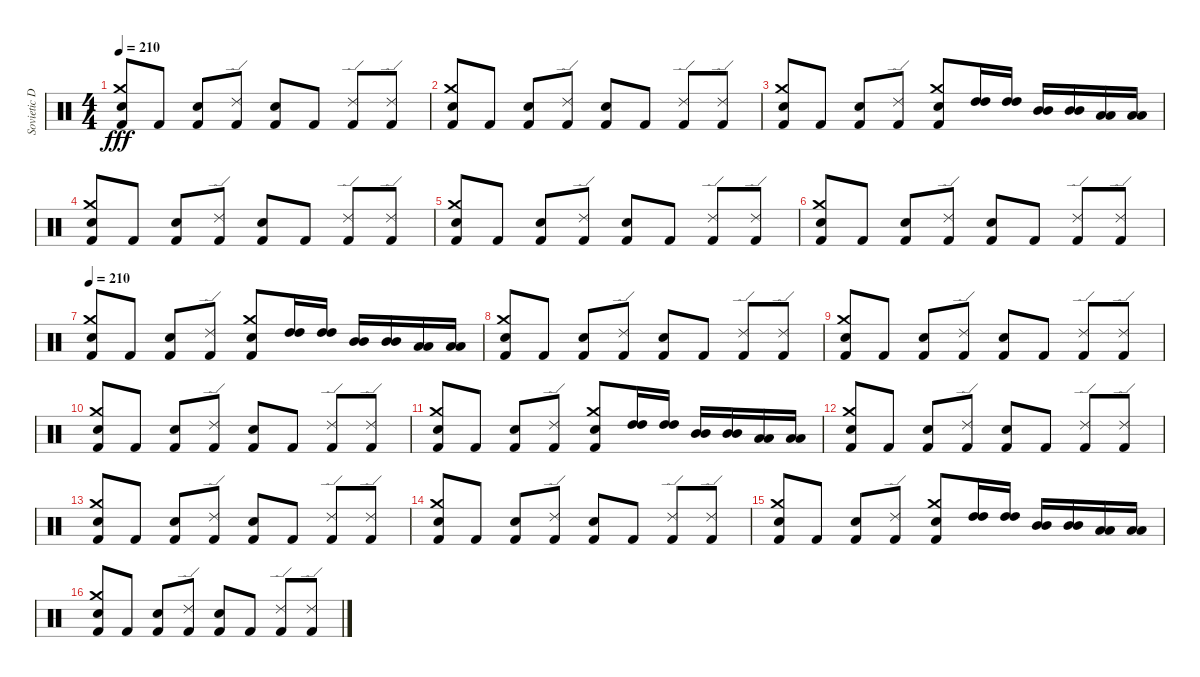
\track ("Sovietic Drummer" "Sovietic D") {instrument percussion}
\staff {score}
\articulation defaults
\ts (4 4)
\tempo 210
\clef neutral
\ks c
("Electric Snare (hit)" "Crash medium (hit)" "Kick (hit) 2").8{dy fff} "Kick (hit) 2".8 ("Electric Snare (hit)" "Kick (hit) 2").8 ("Ride (edge) 2" "Kick (hit) 2").8 ("Electric Snare (hit)" "Kick (hit) 2").8 "Kick (hit) 2".8 ("Ride (edge) 2" "Kick (hit) 2").8 ("Ride (edge) 2" "Kick (hit) 2").8 |
("Electric Snare (hit)" "Crash medium (hit)" "Kick (hit) 2").8 "Kick (hit) 2".8 ("Electric Snare (hit)" "Kick (hit) 2").8 ("Ride (edge) 2" "Kick (hit) 2").8 ("Electric Snare (hit)" "Kick (hit) 2").8 "Kick (hit) 2".8 ("Ride (edge) 2" "Kick (hit) 2").8 ("Ride (edge) 2" "Kick (hit) 2").8 |
("Electric Snare (hit)" "Crash medium (hit)" "Kick (hit) 2").8 "Kick (hit) 2".8 ("Electric Snare (hit)" "Kick (hit) 2").8 ("Ride (edge) 2" "Kick (hit) 2").8 ("Crash medium (hit)" "Electric Snare (hit)" "Kick (hit) 2").8 ("High Tom (hit)" "High Tom (hit)").16 ("High Tom (hit)" "High Tom (hit)").16 ("Mid Tom (hit)" "Mid Tom (hit)").16 ("Mid Tom (hit)" "Mid Tom (hit)").16 ("Low Tom (hit)" "Low Tom (hit)").16 ("Low Tom (hit)" "Low Tom (hit)").16 |
("Electric Snare (hit)" "Crash medium (hit)" "Kick (hit) 2").8 "Kick (hit) 2".8 ("Electric Snare (hit)" "Kick (hit) 2").8 ("Ride (edge) 2" "Kick (hit) 2").8 ("Electric Snare (hit)" "Kick (hit) 2").8 "Kick (hit) 2".8 ("Ride (edge) 2" "Kick (hit) 2").8 ("Ride (edge) 2" "Kick (hit) 2").8 |
("Electric Snare (hit)" "Crash medium (hit)" "Kick (hit) 2").8 "Kick (hit) 2".8 ("Electric Snare (hit)" "Kick (hit) 2").8 ("Ride (edge) 2" "Kick (hit) 2").8 ("Electric Snare (hit)" "Kick (hit) 2").8 "Kick (hit) 2".8 ("Ride (edge) 2" "Kick (hit) 2").8 ("Ride (edge) 2" "Kick (hit) 2").8 |
("Electric Snare (hit)" "Crash medium (hit)" "Kick (hit) 2").8 "Kick (hit) 2".8 ("Electric Snare (hit)" "Kick (hit) 2").8 ("Ride (edge) 2" "Kick (hit) 2").8 ("Electric Snare (hit)" "Kick (hit) 2").8 "Kick (hit) 2".8 ("Ride (edge) 2" "Kick (hit) 2").8 ("Ride (edge) 2" "Kick (hit) 2").8 |
\tempo 210
("Electric Snare (hit)" "Crash medium (hit)" "Kick (hit) 2").8 "Kick (hit) 2".8 ("Electric Snare (hit)" "Kick (hit) 2").8 ("Ride (edge) 2" "Kick (hit) 2").8 ("Crash medium (hit)" "Electric Snare (hit)" "Kick (hit) 2").8 ("High Tom (hit)" "High Tom (hit)").16 ("High Tom (hit)" "High Tom (hit)").16 ("Mid Tom (hit)" "Mid Tom (hit)").16 ("Mid Tom (hit)" "Mid Tom (hit)").16 ("Low Tom (hit)" "Low Tom (hit)").16 ("Low Tom (hit)" "Low Tom (hit)").16 |
("Electric Snare (hit)" "Crash medium (hit)" "Kick (hit) 2").8 "Kick (hit) 2".8 ("Electric Snare (hit)" "Kick (hit) 2").8 ("Ride (edge) 2" "Kick (hit) 2").8 ("Electric Snare (hit)" "Kick (hit) 2").8 "Kick (hit) 2".8 ("Ride (edge) 2" "Kick (hit) 2").8 ("Ride (edge) 2" "Kick (hit) 2").8 |
("Electric Snare (hit)" "Crash medium (hit)" "Kick (hit) 2").8 "Kick (hit) 2".8 ("Electric Snare (hit)" "Kick (hit) 2").8 ("Ride (edge) 2" "Kick (hit) 2").8 ("Electric Snare (hit)" "Kick (hit) 2").8 "Kick (hit) 2".8 ("Ride (edge) 2" "Kick (hit) 2").8 ("Ride (edge) 2" "Kick (hit) 2").8 |
("Electric Snare (hit)" "Crash medium (hit)" "Kick (hit) 2").8 "Kick (hit) 2".8 ("Electric Snare (hit)" "Kick (hit) 2").8 ("Ride (edge) 2" "Kick (hit) 2").8 ("Electric Snare (hit)" "Kick (hit) 2").8 "Kick (hit) 2".8 ("Ride (edge) 2" "Kick (hit) 2").8 ("Ride (edge) 2" "Kick (hit) 2").8 |
("Electric Snare (hit)" "Crash medium (hit)" "Kick (hit) 2").8 "Kick (hit) 2".8 ("Electric Snare (hit)" "Kick (hit) 2").8 ("Ride (edge) 2" "Kick (hit) 2").8 ("Crash medium (hit)" "Electric Snare (hit)" "Kick (hit) 2").8 ("High Tom (hit)" "High Tom (hit)").16 ("High Tom (hit)" "High Tom (hit)").16 ("Mid Tom (hit)" "Mid Tom (hit)").16 ("Mid Tom (hit)" "Mid Tom (hit)").16 ("Low Tom (hit)" "Low Tom (hit)").16 ("Low Tom (hit)" "Low Tom (hit)").16 |
("Electric Snare (hit)" "Crash medium (hit)" "Kick (hit) 2").8 "Kick (hit) 2".8 ("Electric Snare (hit)" "Kick (hit) 2").8 ("Ride (edge) 2" "Kick (hit) 2").8 ("Electric Snare (hit)" "Kick (hit) 2").8 "Kick (hit) 2".8 ("Ride (edge) 2" "Kick (hit) 2").8 ("Ride (edge) 2" "Kick (hit) 2").8 |
("Electric Snare (hit)" "Crash medium (hit)" "Kick (hit) 2").8 "Kick (hit) 2".8 ("Electric Snare (hit)" "Kick (hit) 2").8 ("Ride (edge) 2" "Kick (hit) 2").8 ("Electric Snare (hit)" "Kick (hit) 2").8 "Kick (hit) 2".8 ("Ride (edge) 2" "Kick (hit) 2").8 ("Ride (edge) 2" "Kick (hit) 2").8 |
("Electric Snare (hit)" "Crash medium (hit)" "Kick (hit) 2").8 "Kick (hit) 2".8 ("Electric Snare (hit)" "Kick (hit) 2").8 ("Ride (edge) 2" "Kick (hit) 2").8 ("Electric Snare (hit)" "Kick (hit) 2").8 "Kick (hit) 2".8 ("Ride (edge) 2" "Kick (hit) 2").8 ("Ride (edge) 2" "Kick (hit) 2").8 |
("Electric Snare (hit)" "Crash medium (hit)" "Kick (hit) 2").8 "Kick (hit) 2".8 ("Electric Snare (hit)" "Kick (hit) 2").8 ("Ride (edge) 2" "Kick (hit) 2").8 ("Crash medium (hit)" "Electric Snare (hit)" "Kick (hit) 2").8 ("High Tom (hit)" "High Tom (hit)").16 ("High Tom (hit)" "High Tom (hit)").16 ("Mid Tom (hit)" "Mid Tom (hit)").16 ("Mid Tom (hit)" "Mid Tom (hit)").16 ("Low Tom (hit)" "Low Tom (hit)").16 ("Low Tom (hit)" "Low Tom (hit)").16 |
("Electric Snare (hit)" "Crash medium (hit)" "Kick (hit) 2").8 "Kick (hit) 2".8 ("Electric Snare (hit)" "Kick (hit) 2").8 ("Ride (edge) 2" "Kick (hit) 2").8 ("Electric Snare (hit)" "Kick (hit) 2").8 "Kick (hit) 2".8 ("Ride (edge) 2" "Kick (hit) 2").8 ("Ride (edge) 2" "Kick (hit) 2").8
